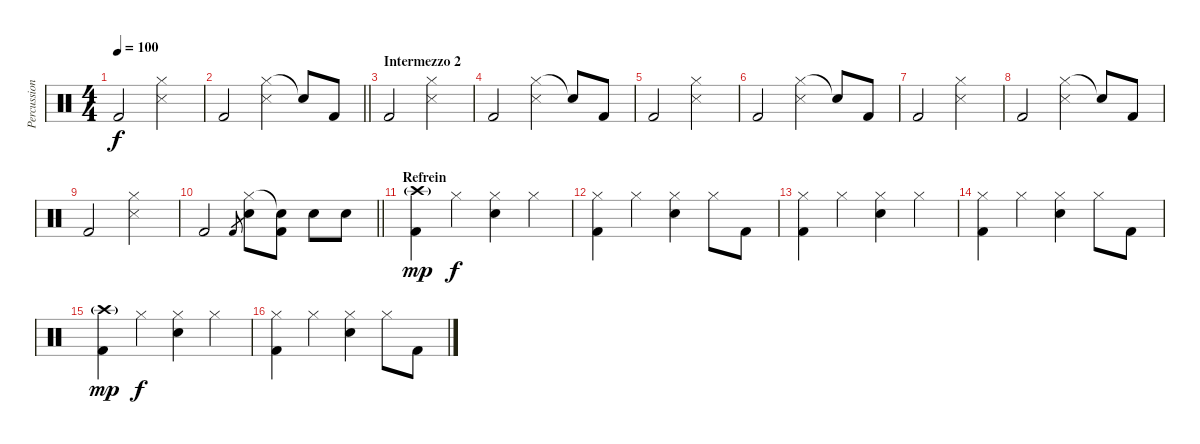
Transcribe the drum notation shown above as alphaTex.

\track ("Percussion" "Percussion") {instrument percussion}
\staff {score}
\articulation defaults
\ts (4 4)
\tempo 100
\clef neutral
\ks c "Kick (hit) 2".2{dy f}
("Hi-Hat (closed)" "Snare (side stick) 3").2 |
\barLineRight lightlight "Kick (hit) 2".2
("Hi-Hat (closed)" "Snare (side stick) 3").4 "Snare (hit)"{t}.8 "Kick (hit) 2".8 |
\section ("" "Intermezzo 2")
"Kick (hit) 2".2 ("Hi-Hat (closed)" "Snare (side stick) 3").2 |
"Kick (hit) 2".2 ("Hi-Hat (closed)" "Snare (side stick) 3").4 "Snare (hit)"{t}.8 "Kick (hit) 2".8 |
"Kick (hit) 2".2 ("Hi-Hat (closed)" "Snare (side stick) 3").2 |
"Kick (hit) 2".2 ("Hi-Hat (closed)" "Snare (side stick) 3").4 "Snare (hit)"{t}.8 "Kick (hit) 2".8 |
"Kick (hit) 2".2 ("Hi-Hat (closed)" "Snare (side stick) 3").2 |
"Kick (hit) 2".2 ("Hi-Hat (closed)" "Snare (side stick) 3").4 "Snare (hit)"{t}.8 "Kick (hit) 2".8 |
"Kick (hit) 2".2 ("Hi-Hat (closed)" "Snare (side stick) 3").2 |
\barLineRight lightlight "Kick (hit) 2".2 "Kick (hit) 2".8{gr}
("Hi-Hat (closed)" "Snare (hit) 2").8 ("Snare (hit)"{t} "Kick (hit) 2").8 "Snare (hit) 2".8 "Snare (hit) 2".8 |
\section ("" "Refrein")
("Crash high (hit)"{g} "Kick (hit) 2").4{dy mp} "Hi-Hat (closed)".4{dy f} ("Hi-Hat (closed)" "Snare (hit) 2").4 "Hi-Hat (closed)".4 |
("Hi-Hat (closed)" "Kick (hit) 2").4 "Hi-Hat (closed)".4 ("Hi-Hat (closed)" "Snare (hit) 2").4 "Hi-Hat (closed)".8 "Kick (hit) 2".8 |
("Hi-Hat (closed)" "Kick (hit) 2").4 "Hi-Hat (closed)".4 ("Hi-Hat (closed)" "Snare (hit) 2").4 "Hi-Hat (closed)".4 |
("Hi-Hat (closed)" "Kick (hit) 2").4 "Hi-Hat (closed)".4 ("Hi-Hat (closed)" "Snare (hit) 2").4 "Hi-Hat (closed)".8 "Kick (hit) 2".8 |
("Crash high (hit)"{g} "Kick (hit) 2").4{dy mp} "Hi-Hat (closed)".4{dy f} ("Hi-Hat (closed)" "Snare (hit) 2").4 "Hi-Hat (closed)".4 |
("Hi-Hat (closed)" "Kick (hit) 2").4 "Hi-Hat (closed)".4 ("Hi-Hat (closed)" "Snare (hit) 2").4 "Hi-Hat (closed)".8 "Kick (hit) 2".8
